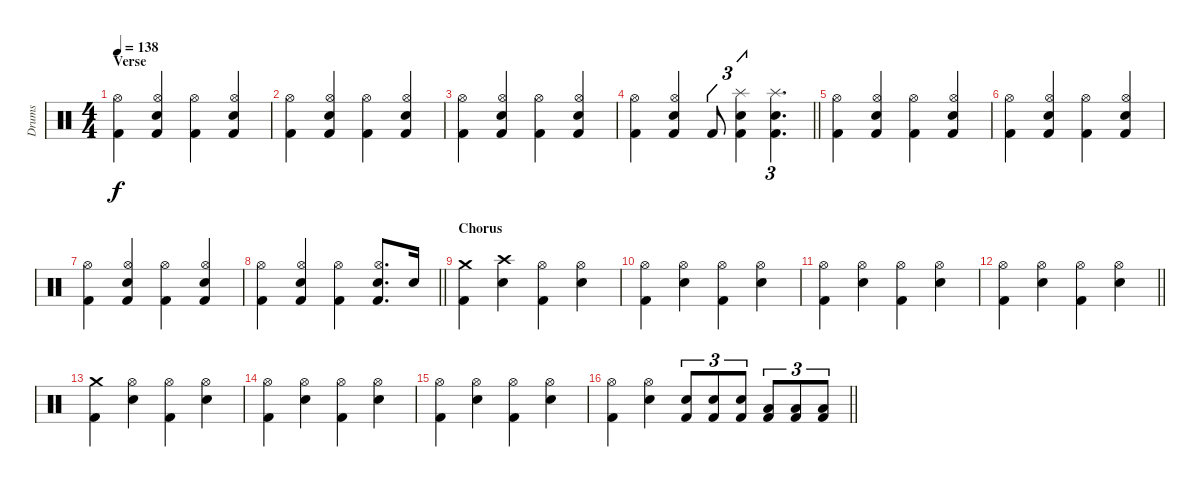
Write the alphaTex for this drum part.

\track ("Drums" "Drums") {instrument percussion}
\staff {score}
\articulation defaults
\ts (4 4)
\section ("" "Verse")
\tempo 138
\clef neutral
\ks c
("Kick (hit) 2" "Hi-Hat (open)").4{dy f} ("Kick (hit) 2" "Snare (hit) 2" "Hi-Hat (open)").4 ("Kick (hit) 2" "Hi-Hat (open)").4 ("Kick (hit) 2" "Snare (hit) 2" "Hi-Hat (open)").4 |
("Kick (hit) 2" "Hi-Hat (open)").4 ("Kick (hit) 2" "Snare (hit) 2" "Hi-Hat (open)").4 ("Kick (hit) 2" "Hi-Hat (open)").4 ("Kick (hit) 2" "Snare (hit) 2" "Hi-Hat (open)").4 |
("Kick (hit) 2" "Hi-Hat (open)").4 ("Kick (hit) 2" "Snare (hit) 2" "Hi-Hat (open)").4 ("Kick (hit) 2" "Hi-Hat (open)").4 ("Kick (hit) 2" "Snare (hit) 2" "Hi-Hat (open)").4 |
\barLineRight lightlight
("Kick (hit) 2" "Hi-Hat (open)").4 ("Kick (hit) 2" "Snare (hit) 2" "Hi-Hat (open)").4 "Kick (hit) 2".8{tu (3 2)} ("Kick (hit) 2" "Snare (hit) 2" "Splash (hit)").4{tu (3 2)} ("Kick (hit) 2" "Snare (hit) 2" "Splash (hit)").4{d tu (3 2)} |
\section ("" "")
("Kick (hit) 2" "Hi-Hat (open)").4 ("Kick (hit) 2" "Snare (hit) 2" "Hi-Hat (open)").4 ("Kick (hit) 2" "Hi-Hat (open)").4 ("Kick (hit) 2" "Snare (hit) 2" "Hi-Hat (open)").4 |
("Kick (hit) 2" "Hi-Hat (open)").4 ("Kick (hit) 2" "Snare (hit) 2" "Hi-Hat (open)").4 ("Kick (hit) 2" "Hi-Hat (open)").4 ("Kick (hit) 2" "Snare (hit) 2" "Hi-Hat (open)").4 |
("Kick (hit) 2" "Hi-Hat (open)").4 ("Kick (hit) 2" "Snare (hit) 2" "Hi-Hat (open)").4 ("Kick (hit) 2" "Hi-Hat (open)").4 ("Kick (hit) 2" "Snare (hit) 2" "Hi-Hat (open)").4 |
\barLineRight lightlight
("Kick (hit) 2" "Hi-Hat (open)").4 ("Kick (hit) 2" "Snare (hit) 2" "Hi-Hat (open)").4 ("Kick (hit) 2" "Hi-Hat (open)").4 ("Kick (hit) 2" "Snare (hit) 2" "Hi-Hat (open)").8{d} "Snare (hit) 2".16 |
\section ("" "Chorus")
("Kick (hit) 2" "Crash medium (hit)").4 ("Snare (hit) 2" "Crash high (hit)").4 ("Kick (hit) 2" "Hi-Hat (open)").4 ("Snare (hit) 2" "Hi-Hat (open)").4 |
("Kick (hit) 2" "Hi-Hat (open)").4 ("Snare (hit) 2" "Hi-Hat (open)").4 ("Kick (hit) 2" "Hi-Hat (open)").4 ("Snare (hit) 2" "Hi-Hat (open)").4 |
("Kick (hit) 2" "Hi-Hat (open)").4 ("Snare (hit) 2" "Hi-Hat (open)").4 ("Kick (hit) 2" "Hi-Hat (open)").4 ("Snare (hit) 2" "Hi-Hat (open)").4 |
\barLineRight lightlight
("Kick (hit) 2" "Hi-Hat (open)").4 ("Snare (hit) 2" "Hi-Hat (open)").4 ("Kick (hit) 2" "Hi-Hat (open)").4 ("Snare (hit) 2" "Hi-Hat (open)").4 |
\section ("" "")
("Kick (hit) 2" "Crash medium (hit)").4 ("Snare (hit) 2" "Hi-Hat (open)").4 ("Kick (hit) 2" "Hi-Hat (open)").4 ("Snare (hit) 2" "Hi-Hat (open)").4 |
("Kick (hit) 2" "Hi-Hat (open)").4 ("Snare (hit) 2" "Hi-Hat (open)").4 ("Kick (hit) 2" "Hi-Hat (open)").4 ("Snare (hit) 2" "Hi-Hat (open)").4 |
("Kick (hit) 2" "Hi-Hat (open)").4 ("Snare (hit) 2" "Hi-Hat (open)").4 ("Kick (hit) 2" "Hi-Hat (open)").4 ("Snare (hit) 2" "Hi-Hat (open)").4 |
\barLineRight lightlight
("Kick (hit) 2" "Hi-Hat (open)").4 ("Snare (hit) 2" "Hi-Hat (open)").4 ("Kick (hit) 2" "Snare (hit) 2").8{tu (3 2)} ("Kick (hit) 2" "Snare (hit) 2").8{tu (3 2)} ("Kick (hit) 2" "Snare (hit) 2").8{tu (3 2)} ("Kick (hit) 2" "Low Tom (hit)").8{tu (3 2)} ("Kick (hit) 2" "Low Tom (hit)").8{tu (3 2)} ("Kick (hit) 2" "Low Tom (hit)").8{tu (3 2)}
